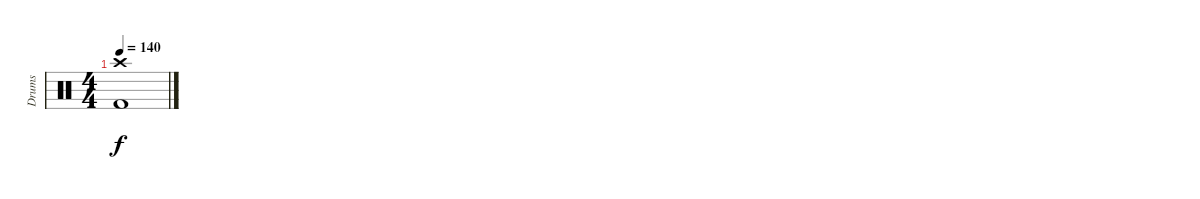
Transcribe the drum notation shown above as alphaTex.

\track ("Drums" "Drums") {instrument percussion}
\staff {score}
\articulation defaults
\ts (4 4)
\tempo 140
\clef neutral
\ks c
("Crash high (hit)" "Kick (hit) 2").1{dy f}
